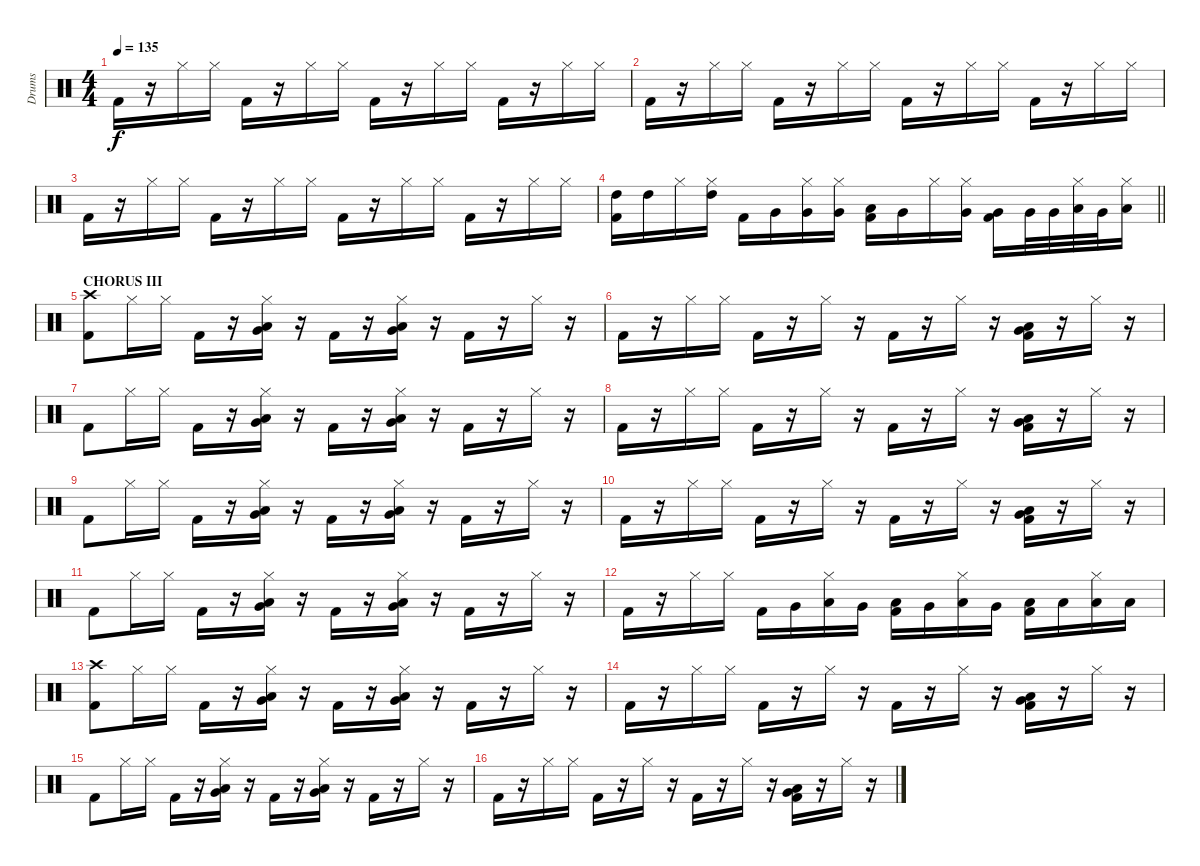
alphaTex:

\track ("Drums" "Drums") {instrument percussion}
\staff {score}
\articulation defaults
\ts (4 4)
\tempo 135
\clef neutral
\ks c "Kick (hit) 2".16{dy f}
r.16 "Hi-Hat (closed)".16 "Hi-Hat (closed)".16 "Kick (hit) 2".16 r.16 "Hi-Hat (closed)".16 "Hi-Hat (closed)".16 "Kick (hit) 2".16 r.16 "Hi-Hat (closed)".16 "Hi-Hat (closed)".16 "Kick (hit) 2".16 r.16 "Hi-Hat (closed)".16 "Hi-Hat (closed)".16 |
"Kick (hit) 2".16 r.16 "Hi-Hat (closed)".16 "Hi-Hat (closed)".16 "Kick (hit) 2".16 r.16 "Hi-Hat (closed)".16 "Hi-Hat (closed)".16 "Kick (hit) 2".16 r.16 "Hi-Hat (closed)".16 "Hi-Hat (closed)".16 "Kick (hit) 2".16 r.16 "Hi-Hat (closed)".16 "Hi-Hat (closed)".16 |
"Kick (hit) 2".16 r.16 "Hi-Hat (closed)".16 "Hi-Hat (closed)".16 "Kick (hit) 2".16 r.16 "Hi-Hat (closed)".16 "Hi-Hat (closed)".16 "Kick (hit) 2".16 r.16 "Hi-Hat (closed)".16 "Hi-Hat (closed)".16 "Kick (hit) 2".16 r.16 "Hi-Hat (closed)".16 "Hi-Hat (closed)".16 |
\barLineRight lightlight
("Kick (hit) 2" "High Tom (hit)").16 "High Tom (hit)".16 "Hi-Hat (closed)".16 ("Hi-Hat (closed)" "High Tom (hit)").16 "Kick (hit) 2".16 "Very Low Tom (hit)".16 ("Hi-Hat (closed)" "Very Low Tom (hit)").16 ("Hi-Hat (closed)" "Very Low Tom (hit)").16 ("Kick (hit) 2" "Low Floor Tom (hit)").16 "Very Low Tom (hit)".16 "Hi-Hat (closed)".16 ("Hi-Hat (closed)" "Very Low Tom (hit)").16 ("Kick (hit) 2" "Very Low Tom (hit)").16 "Very Low Tom (hit)".32 "Very Low Tom (hit)".32 ("Hi-Hat (closed)" "Low Floor Tom (hit)").32 "Very Low Tom (hit)".32 ("Hi-Hat (closed)" "Low Floor Tom (hit)").16 |
\section ("" "CHORUS III")
("Kick (hit) 2" "Crash high (hit)").8 "Hi-Hat (closed)".16 "Hi-Hat (closed)".16 "Kick (hit) 2".16 r.16 ("Hi-Hat (closed)" "Very Low Tom (hit)" "Low Floor Tom (hit)").16 r.16 "Kick (hit) 2".16 r.16 ("Hi-Hat (closed)" "Low Floor Tom (hit)" "Very Low Tom (hit)").16 r.16 "Kick (hit) 2".16 r.16 "Hi-Hat (closed)".16 r.16 |
"Kick (hit) 2".16 r.16 "Hi-Hat (closed)".16 "Hi-Hat (closed)".16 "Kick (hit) 2".16 r.16 "Hi-Hat (closed)".16 r.16 "Kick (hit) 2".16 r.16 "Hi-Hat (closed)".16 r.16 ("Kick (hit) 2" "Low Floor Tom (hit)" "Very Low Tom (hit)").16 r.16 "Hi-Hat (closed)".16 r.16 |
"Kick (hit) 2".8 "Hi-Hat (closed)".16 "Hi-Hat (closed)".16 "Kick (hit) 2".16 r.16 ("Hi-Hat (closed)" "Very Low Tom (hit)" "Low Floor Tom (hit)").16 r.16 "Kick (hit) 2".16 r.16 ("Hi-Hat (closed)" "Low Floor Tom (hit)" "Very Low Tom (hit)").16 r.16 "Kick (hit) 2".16 r.16 "Hi-Hat (closed)".16 r.16 |
"Kick (hit) 2".16 r.16 "Hi-Hat (closed)".16 "Hi-Hat (closed)".16 "Kick (hit) 2".16 r.16 "Hi-Hat (closed)".16 r.16 "Kick (hit) 2".16 r.16 "Hi-Hat (closed)".16 r.16 ("Kick (hit) 2" "Low Floor Tom (hit)" "Very Low Tom (hit)").16 r.16 "Hi-Hat (closed)".16 r.16 |
"Kick (hit) 2".8 "Hi-Hat (closed)".16 "Hi-Hat (closed)".16 "Kick (hit) 2".16 r.16 ("Hi-Hat (closed)" "Very Low Tom (hit)" "Low Floor Tom (hit)").16 r.16 "Kick (hit) 2".16 r.16 ("Hi-Hat (closed)" "Low Floor Tom (hit)" "Very Low Tom (hit)").16 r.16 "Kick (hit) 2".16 r.16 "Hi-Hat (closed)".16 r.16 |
"Kick (hit) 2".16 r.16 "Hi-Hat (closed)".16 "Hi-Hat (closed)".16 "Kick (hit) 2".16 r.16 "Hi-Hat (closed)".16 r.16 "Kick (hit) 2".16 r.16 "Hi-Hat (closed)".16 r.16 ("Kick (hit) 2" "Low Floor Tom (hit)" "Very Low Tom (hit)").16 r.16 "Hi-Hat (closed)".16 r.16 |
"Kick (hit) 2".8 "Hi-Hat (closed)".16 "Hi-Hat (closed)".16 "Kick (hit) 2".16 r.16 ("Hi-Hat (closed)" "Very Low Tom (hit)" "Low Floor Tom (hit)").16 r.16 "Kick (hit) 2".16 r.16 ("Hi-Hat (closed)" "Low Floor Tom (hit)" "Very Low Tom (hit)").16 r.16 "Kick (hit) 2".16 r.16 "Hi-Hat (closed)".16 r.16 |
"Kick (hit) 2".16 r.16 "Hi-Hat (closed)".16 "Hi-Hat (closed)".16 "Kick (hit) 2".16 "Very Low Tom (hit)".16 ("Hi-Hat (closed)" "Low Floor Tom (hit)").16 "Very Low Tom (hit)".16 ("Kick (hit) 2" "Low Floor Tom (hit)").16 "Very Low Tom (hit)".16 ("Hi-Hat (closed)" "Low Tom (hit)").16 "Very Low Tom (hit)".16 ("Kick (hit) 2" "Low Floor Tom (hit)").16 "Low Floor Tom (hit)".16 ("Hi-Hat (closed)" "Low Floor Tom (hit)").16 "Low Floor Tom (hit)".16 |
("Kick (hit) 2" "Crash high (hit)").8 "Hi-Hat (closed)".16 "Hi-Hat (closed)".16 "Kick (hit) 2".16 r.16 ("Hi-Hat (closed)" "Very Low Tom (hit)" "Low Floor Tom (hit)").16 r.16 "Kick (hit) 2".16 r.16 ("Hi-Hat (closed)" "Low Floor Tom (hit)" "Very Low Tom (hit)").16 r.16 "Kick (hit) 2".16 r.16 "Hi-Hat (closed)".16 r.16 |
"Kick (hit) 2".16 r.16 "Hi-Hat (closed)".16 "Hi-Hat (closed)".16 "Kick (hit) 2".16 r.16 "Hi-Hat (closed)".16 r.16 "Kick (hit) 2".16 r.16 "Hi-Hat (closed)".16 r.16 ("Kick (hit) 2" "Low Floor Tom (hit)" "Very Low Tom (hit)").16 r.16 "Hi-Hat (closed)".16 r.16 |
"Kick (hit) 2".8 "Hi-Hat (closed)".16 "Hi-Hat (closed)".16 "Kick (hit) 2".16 r.16 ("Hi-Hat (closed)" "Very Low Tom (hit)" "Low Floor Tom (hit)").16 r.16 "Kick (hit) 2".16 r.16 ("Hi-Hat (closed)" "Low Floor Tom (hit)" "Very Low Tom (hit)").16 r.16 "Kick (hit) 2".16 r.16 "Hi-Hat (closed)".16 r.16 |
"Kick (hit) 2".16 r.16 "Hi-Hat (closed)".16 "Hi-Hat (closed)".16 "Kick (hit) 2".16 r.16 "Hi-Hat (closed)".16 r.16 "Kick (hit) 2".16 r.16 "Hi-Hat (closed)".16 r.16 ("Kick (hit) 2" "Low Floor Tom (hit)" "Very Low Tom (hit)").16 r.16 "Hi-Hat (closed)".16 r.16
